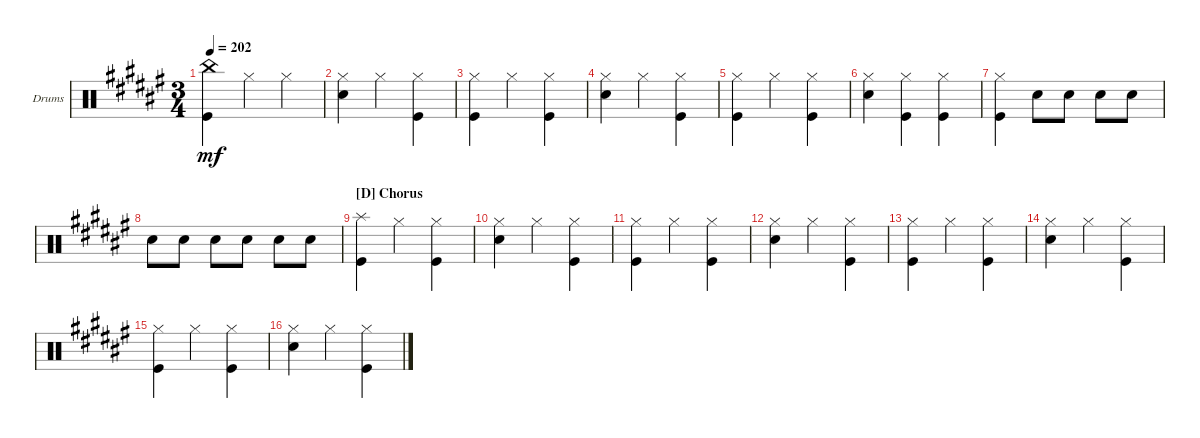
\defaultSystemsLayout 4
\bracketExtendMode groupsimilarinstruments
\firstSystemTrackNameOrientation horizontal
\otherSystemsTrackNameOrientation horizontal
\track ("Drumkit" "Drums") {instrument percussion}
\staff {score}
\articulation defaults
\ts (3 4)
\tempo 202
\clef neutral
\ks f#
("China (hit)" "Kick (hit)").4{dy mf} "Hi-Hat (closed)".4 "Hi-Hat (closed)".4 |
("Hi-Hat (closed)" "Snare (hit) 2").4 "Hi-Hat (closed)".4 ("Hi-Hat (closed)" "Kick (hit)").4 |
("Hi-Hat (closed)" "Kick (hit)").4 "Hi-Hat (closed)".4 ("Hi-Hat (closed)" "Kick (hit)").4 |
("Hi-Hat (closed)" "Snare (hit) 2").4 "Hi-Hat (closed)".4 ("Hi-Hat (closed)" "Kick (hit)").4 |
("Hi-Hat (closed)" "Kick (hit)").4 "Hi-Hat (closed)".4 ("Hi-Hat (closed)" "Kick (hit)").4 |
("Snare (hit) 2" "Hi-Hat (closed)").4 ("Hi-Hat (closed)" "Kick (hit)").4 ("Hi-Hat (closed)" "Kick (hit)").4 |
("Hi-Hat (closed)" "Kick (hit)").4 "Snare (hit) 2".8 "Snare (hit) 2".8 "Snare (hit) 2".8 "Snare (hit) 2".8 |
"Snare (hit) 2".8 "Snare (hit) 2".8 "Snare (hit) 2".8 "Snare (hit) 2".8 "Snare (hit) 2".8 "Snare (hit) 2".8 |
\section ("D" "Chorus")
("Kick (hit)" "Splash (hit)").4 "Hi-Hat (closed)".4 ("Kick (hit)" "Hi-Hat (closed)").4 |
("Snare (hit) 2" "Hi-Hat (closed)").4 "Hi-Hat (closed)".4 ("Kick (hit)" "Hi-Hat (closed)").4 |
("Kick (hit)" "Hi-Hat (closed)").4 "Hi-Hat (closed)".4 ("Kick (hit)" "Hi-Hat (closed)").4 |
("Snare (hit) 2" "Hi-Hat (closed)").4 "Hi-Hat (closed)".4 ("Kick (hit)" "Hi-Hat (closed)").4 |
("Kick (hit)" "Hi-Hat (closed)").4 "Hi-Hat (closed)".4 ("Kick (hit)" "Hi-Hat (closed)").4 |
("Snare (hit) 2" "Hi-Hat (closed)").4 "Hi-Hat (closed)".4 ("Kick (hit)" "Hi-Hat (closed)").4 |
("Kick (hit)" "Hi-Hat (closed)").4 "Hi-Hat (closed)".4 ("Kick (hit)" "Hi-Hat (closed)").4 |
("Snare (hit) 2" "Hi-Hat (closed)").4 "Hi-Hat (closed)".4 ("Kick (hit)" "Hi-Hat (closed)").4
